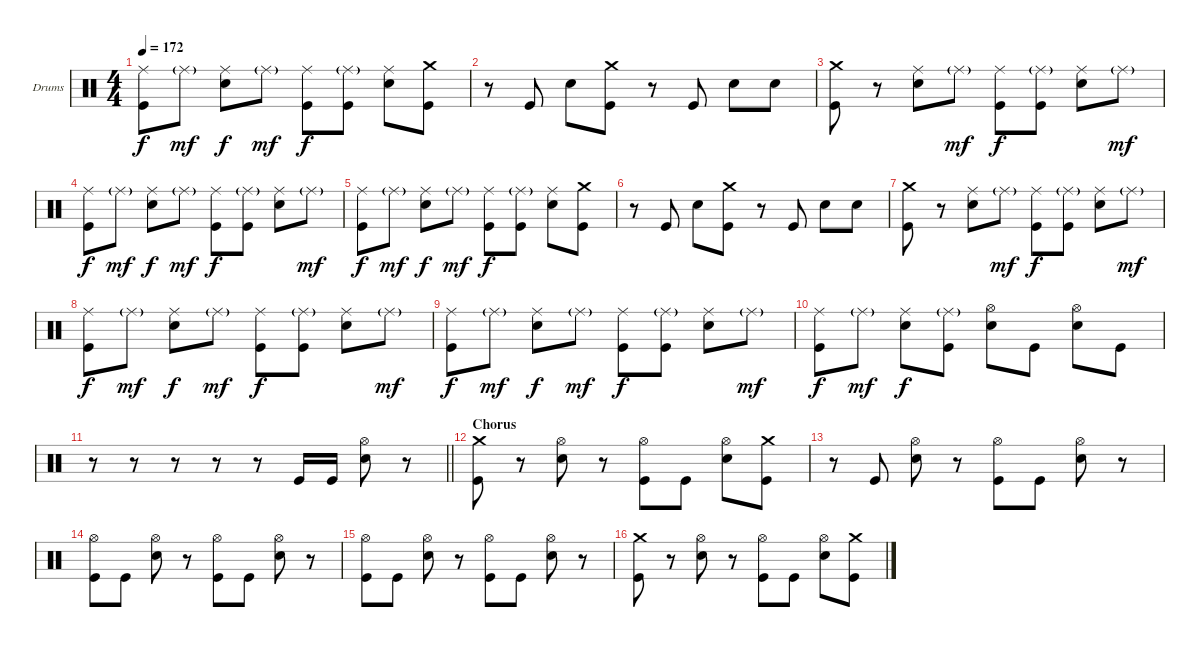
\bracketExtendMode groupsimilarinstruments
\firstSystemTrackNameOrientation horizontal
\otherSystemsTrackNameOrientation horizontal
\track ("Drumkit" "Drums") {instrument percussion}
\staff {score}
\articulation defaults
\ts (4 4)
\tempo 172
\clef neutral
\ks c
("Ride (middle)" "Kick (hit)").8{dy f} "Ride (middle)"{g}.8{dy mf} ("Ride (middle)" "Snare (hit) 2").8{dy f} "Ride (middle)"{g}.8{dy mf} ("Ride (middle)" "Kick (hit)").8{dy f} ("Ride (middle)"{g} "Kick (hit)").8 ("Ride (middle)" "Snare (hit) 2").8 ("Crash medium (hit)" "Kick (hit)").8 |
r.8 "Kick (hit)".8 "Snare (hit) 2".8 ("Crash medium (hit)" "Kick (hit)").8 r.8 "Kick (hit)".8 "Snare (hit) 2".8 "Snare (hit) 2".8 |
("Crash medium (hit)" "Kick (hit)").8 r.8 ("Ride (middle)" "Snare (hit) 2").8 "Ride (middle)"{g}.8{dy mf} ("Ride (middle)" "Kick (hit)").8{dy f} ("Ride (middle)"{g} "Kick (hit)").8 ("Ride (middle)" "Snare (hit) 2").8 "Ride (middle)"{g}.8{dy mf} |
("Ride (middle)" "Kick (hit)").8{dy f} "Ride (middle)"{g}.8{dy mf} ("Ride (middle)" "Snare (hit) 2").8{dy f} "Ride (middle)"{g}.8{dy mf} ("Ride (middle)" "Kick (hit)").8{dy f} ("Ride (middle)"{g} "Kick (hit)").8 ("Ride (middle)" "Snare (hit) 2").8 "Ride (middle)"{g}.8{dy mf} |
("Ride (middle)" "Kick (hit)").8{dy f} "Ride (middle)"{g}.8{dy mf} ("Ride (middle)" "Snare (hit) 2").8{dy f} "Ride (middle)"{g}.8{dy mf} ("Ride (middle)" "Kick (hit)").8{dy f} ("Ride (middle)"{g} "Kick (hit)").8 ("Ride (middle)" "Snare (hit) 2").8 ("Crash medium (hit)" "Kick (hit)").8 |
r.8 "Kick (hit)".8 "Snare (hit) 2".8 ("Crash medium (hit)" "Kick (hit)").8 r.8 "Kick (hit)".8 "Snare (hit) 2".8 "Snare (hit) 2".8 |
("Crash medium (hit)" "Kick (hit)").8 r.8 ("Ride (middle)" "Snare (hit) 2").8 "Ride (middle)"{g}.8{dy mf} ("Ride (middle)" "Kick (hit)").8{dy f} ("Ride (middle)"{g} "Kick (hit)").8 ("Ride (middle)" "Snare (hit) 2").8 "Ride (middle)"{g}.8{dy mf} |
("Ride (middle)" "Kick (hit)").8{dy f} "Ride (middle)"{g}.8{dy mf} ("Ride (middle)" "Snare (hit) 2").8{dy f} "Ride (middle)"{g}.8{dy mf} ("Ride (middle)" "Kick (hit)").8{dy f} ("Ride (middle)"{g} "Kick (hit)").8 ("Ride (middle)" "Snare (hit) 2").8 "Ride (middle)"{g}.8{dy mf} |
("Ride (middle)" "Kick (hit)").8{dy f} "Ride (middle)"{g}.8{dy mf} ("Ride (middle)" "Snare (hit) 2").8{dy f} "Ride (middle)"{g}.8{dy mf} ("Ride (middle)" "Kick (hit)").8{dy f} ("Ride (middle)"{g} "Kick (hit)").8 ("Ride (middle)" "Snare (hit) 2").8 "Ride (middle)"{g}.8{dy mf} |
("Ride (middle)" "Kick (hit)").8{dy f} "Ride (middle)"{g}.8{dy mf} ("Ride (middle)" "Snare (hit) 2").8{dy f} ("Ride (middle)"{g} "Kick (hit)").8 ("Hi-Hat (open)" "Snare (hit) 2").8 "Kick (hit)".8 ("Hi-Hat (open)" "Snare (hit) 2").8 "Kick (hit)".8 |
\barLineRight lightlight
r.8 r.8 r.8 r.8 r.8 "Kick (hit)".16 "Kick (hit)".16 ("Hi-Hat (open)" "Snare (hit) 2").8 r.8 |
\section ("" "Chorus")
("Crash medium (hit)" "Kick (hit)").8 r.8 ("Hi-Hat (open)" "Snare (hit) 2").8 r.8 ("Hi-Hat (open)" "Kick (hit)").8 "Kick (hit)".8 ("Hi-Hat (open)" "Snare (hit) 2").8 ("Crash medium (hit)" "Kick (hit)").8 |
r.8 "Kick (hit)".8 ("Hi-Hat (open)" "Snare (hit) 2").8 r.8 ("Hi-Hat (open)" "Kick (hit)").8 "Kick (hit)".8 ("Hi-Hat (open)" "Snare (hit) 2").8 r.8 |
("Hi-Hat (open)" "Kick (hit)").8 "Kick (hit)".8 ("Hi-Hat (open)" "Snare (hit) 2").8 r.8 ("Hi-Hat (open)" "Kick (hit)").8 "Kick (hit)".8 ("Hi-Hat (open)" "Snare (hit) 2").8 r.8 |
("Hi-Hat (open)" "Kick (hit)").8 "Kick (hit)".8 ("Hi-Hat (open)" "Snare (hit) 2").8 r.8 ("Hi-Hat (open)" "Kick (hit)").8 "Kick (hit)".8 ("Hi-Hat (open)" "Snare (hit) 2").8 r.8 |
("Crash medium (hit)" "Kick (hit)").8 r.8 ("Hi-Hat (open)" "Snare (hit) 2").8 r.8 ("Hi-Hat (open)" "Kick (hit)").8 "Kick (hit)".8 ("Hi-Hat (open)" "Snare (hit) 2").8 ("Crash medium (hit)" "Kick (hit)").8
